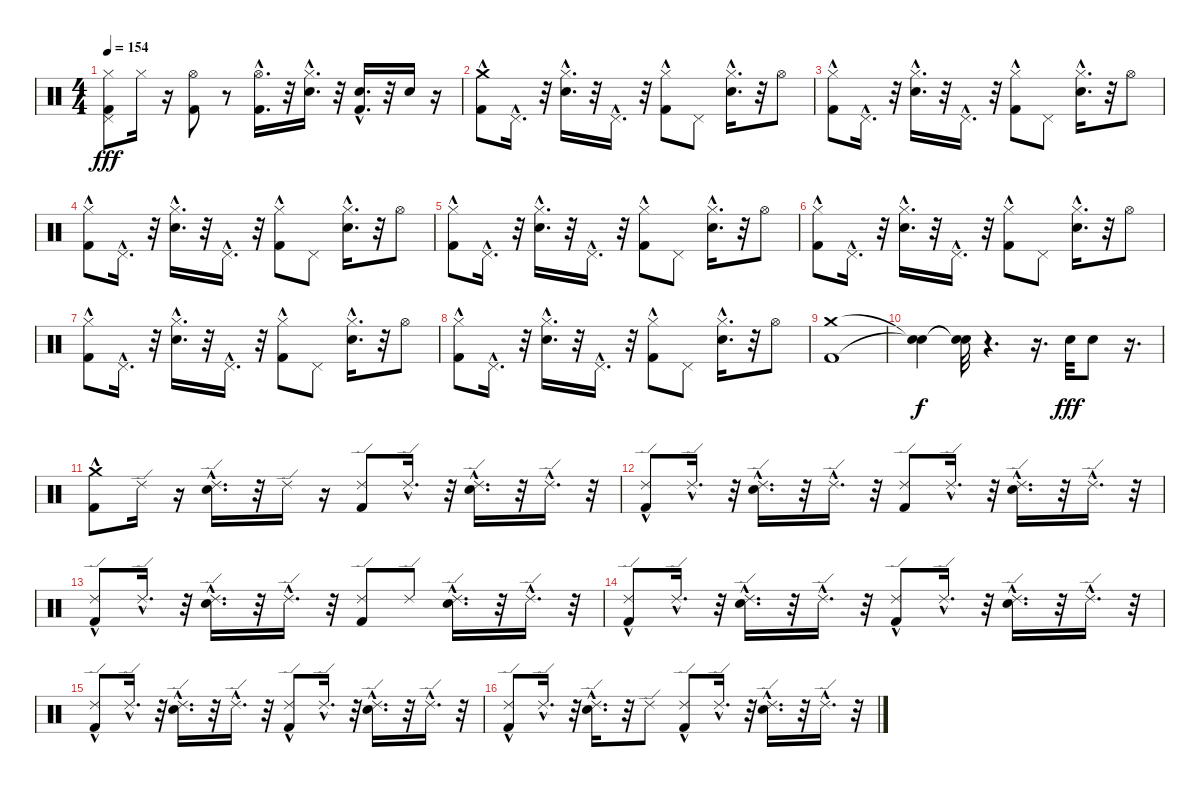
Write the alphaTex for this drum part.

\track "" {instrument percussion}
\staff {score}
\articulation defaults
\ts (4 4)
\tempo 154
\clef neutral
\ks c
("Hi-Hat (closed)" "Kick (hit) 2" "Pedal Hi-Hat (hit)").8{dy fff} "Hi-Hat (closed)".16 r.16 ("Hi-Hat (open)" "Kick (hit) 2").8 r.8 ("Hi-Hat (open)"{hac} "Kick (hit) 2"{hac}).16{d} r.32 ("Electric Snare (hit)"{hac} "Hi-Hat (closed)").16{d} r.32 ("Kick (hit) 2"{hac} "Electric Snare (hit)"{hac}).16{d} r.32 "Electric Snare (hit)".16 r.16 |
("Kick (hit) 2" "Crash medium (hit)"{hac}).8 "Pedal Hi-Hat (hit)"{hac}.16{d} r.32 ("Electric Snare (hit)"{hac} "Hi-Hat (closed)").16{d} r.32 "Pedal Hi-Hat (hit)"{hac}.16{d} r.32 ("Hi-Hat (closed)"{hac} "Kick (hit) 2").8 "Pedal Hi-Hat (hit)".8 ("Electric Snare (hit)"{hac} "Hi-Hat (closed)").16{d} r.32 "Hi-Hat (open)".8 |
("Kick (hit) 2" "Hi-Hat (closed)"{hac}).8 "Pedal Hi-Hat (hit)"{hac}.16{d} r.32 ("Electric Snare (hit)"{hac} "Hi-Hat (closed)").16{d} r.32 "Pedal Hi-Hat (hit)"{hac}.16{d} r.32 ("Hi-Hat (closed)"{hac} "Kick (hit) 2").8 "Pedal Hi-Hat (hit)".8 ("Electric Snare (hit)"{hac} "Hi-Hat (closed)").16{d} r.32 "Hi-Hat (open)".8 |
("Kick (hit) 2" "Hi-Hat (closed)"{hac}).8 "Pedal Hi-Hat (hit)"{hac}.16{d} r.32 ("Electric Snare (hit)"{hac} "Hi-Hat (closed)").16{d} r.32 "Pedal Hi-Hat (hit)"{hac}.16{d} r.32 ("Hi-Hat (closed)"{hac} "Kick (hit) 2").8 "Pedal Hi-Hat (hit)".8 ("Electric Snare (hit)"{hac} "Hi-Hat (closed)").16{d} r.32 "Hi-Hat (open)".8 |
("Kick (hit) 2" "Hi-Hat (closed)"{hac}).8 "Pedal Hi-Hat (hit)"{hac}.16{d} r.32 ("Electric Snare (hit)"{hac} "Hi-Hat (closed)").16{d} r.32 "Pedal Hi-Hat (hit)"{hac}.16{d} r.32 ("Hi-Hat (closed)"{hac} "Kick (hit) 2").8 "Pedal Hi-Hat (hit)".8 ("Electric Snare (hit)"{hac} "Hi-Hat (closed)").16{d} r.32 "Hi-Hat (open)".8 |
("Kick (hit) 2" "Hi-Hat (closed)"{hac}).8 "Pedal Hi-Hat (hit)"{hac}.16{d} r.32 ("Electric Snare (hit)"{hac} "Hi-Hat (closed)").16{d} r.32 "Pedal Hi-Hat (hit)"{hac}.16{d} r.32 ("Hi-Hat (closed)"{hac} "Kick (hit) 2").8 "Pedal Hi-Hat (hit)".8 ("Electric Snare (hit)"{hac} "Hi-Hat (closed)").16{d} r.32 "Hi-Hat (open)".8 |
("Kick (hit) 2" "Hi-Hat (closed)"{hac}).8 "Pedal Hi-Hat (hit)"{hac}.16{d} r.32 ("Electric Snare (hit)"{hac} "Hi-Hat (closed)").16{d} r.32 "Pedal Hi-Hat (hit)"{hac}.16{d} r.32 ("Hi-Hat (closed)"{hac} "Kick (hit) 2").8 "Pedal Hi-Hat (hit)".8 ("Electric Snare (hit)"{hac} "Hi-Hat (closed)").16{d} r.32 "Hi-Hat (open)".8 |
("Kick (hit) 2" "Hi-Hat (closed)"{hac}).8 "Pedal Hi-Hat (hit)"{hac}.16{d} r.32 ("Electric Snare (hit)"{hac} "Hi-Hat (closed)").16{d} r.32 "Pedal Hi-Hat (hit)"{hac}.16{d} r.32 ("Hi-Hat (closed)"{hac} "Kick (hit) 2").8 "Pedal Hi-Hat (hit)".8 ("Electric Snare (hit)"{hac} "Hi-Hat (closed)").16{d} r.32 "Hi-Hat (open)".8 |
("Crash medium (hit)" "Kick (hit) 2").1 |
("Snare (hit)"{t} "Snare (hit)"{t}).4{dy f} ("Snare (hit)"{t} "Snare (hit)"{t}).32 r.4{d} r.16{d} "Electric Snare (hit)".32{dy fff} "Electric Snare (hit)".8 r.16{d} |
("Kick (hit) 2" "Crash medium (hit)"{hac}).8 "Ride (edge) 2".16 r.16 ("Electric Snare (hit)" "Ride (edge) 2"{hac}).16{d} r.32 "Ride (edge) 2".16 r.16 ("Kick (hit) 2" "Ride (edge) 2").8 "Ride (edge) 2"{hac}.16{d} r.32 ("Electric Snare (hit)"{hac} "Ride (edge) 2").16{d} r.32 "Ride (edge) 2"{hac}.16{d} r.32 |
("Ride (edge) 2"{hac} "Kick (hit) 2").8 "Ride (edge) 2"{hac}.16{d} r.32 ("Ride (edge) 2"{hac} "Electric Snare (hit)"{hac}).16{d} r.32 "Ride (edge) 2"{hac}.16{d} r.32 ("Ride (edge) 2" "Kick (hit) 2").8 "Ride (edge) 2"{hac}.16{d} r.32 ("Electric Snare (hit)"{hac} "Ride (edge) 2"{hac}).16{d} r.32 "Ride (edge) 2"{hac}.16{d} r.32 |
("Kick (hit) 2" "Ride (edge) 2"{hac}).8 "Ride (edge) 2"{hac}.16{d} r.32 ("Electric Snare (hit)"{hac} "Ride (edge) 2"{hac}).16{d} r.32 "Ride (edge) 2"{hac}.16{d} r.32 ("Ride (edge) 2" "Kick (hit) 2").8 "Ride (edge) 2".8 ("Electric Snare (hit)"{hac} "Ride (edge) 2"{hac}).16{d} r.32 "Ride (edge) 2"{hac}.16{d} r.32 |
("Kick (hit) 2" "Ride (edge) 2"{hac}).8 "Ride (edge) 2"{hac}.16{d} r.32 ("Electric Snare (hit)"{hac} "Ride (edge) 2"{hac}).16{d} r.32 "Ride (edge) 2"{hac}.16{d} r.32 ("Kick (hit) 2" "Ride (edge) 2"{hac}).8 "Ride (edge) 2"{hac}.16{d} r.32 ("Electric Snare (hit)"{hac} "Ride (edge) 2"{hac}).16{d} r.32 "Ride (edge) 2"{hac}.16{d} r.32 |
("Kick (hit) 2" "Ride (edge) 2"{hac}).8 "Ride (edge) 2"{hac}.16{d} r.32 ("Electric Snare (hit)"{hac} "Ride (edge) 2"{hac}).16{d} r.32 "Ride (edge) 2"{hac}.16{d} r.32 ("Ride (edge) 2"{hac} "Kick (hit) 2").8 "Ride (edge) 2"{hac}.16{d} r.32 ("Ride (edge) 2"{hac} "Electric Snare (hit)"{hac}).16{d} r.32 "Ride (edge) 2"{hac}.16{d} r.32 |
("Ride (edge) 2"{hac} "Kick (hit) 2").8 "Ride (edge) 2"{hac}.16{d} r.32 ("Ride (edge) 2"{hac} "Electric Snare (hit)"{hac}).16{d} r.32 "Ride (edge) 2".8 ("Ride (edge) 2"{hac} "Kick (hit) 2").8 "Ride (edge) 2"{hac}.16{d} r.32 ("Ride (edge) 2"{hac} "Electric Snare (hit)"{hac}).16{d} r.32 "Ride (edge) 2"{hac}.16{d} r.32
